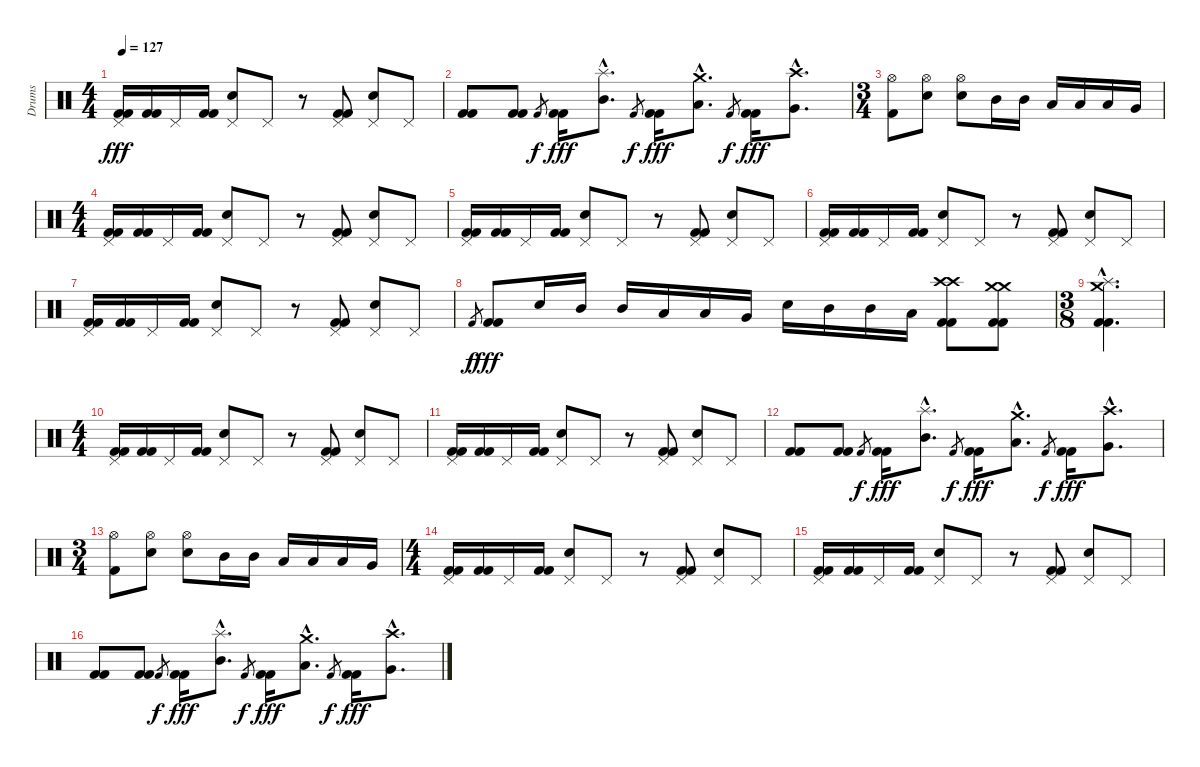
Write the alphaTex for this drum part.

\track ("Drums" "Drums") {instrument percussion}
\staff {score}
\articulation defaults
\ts (4 4)
\tempo 127
\clef neutral
\ks c
("Pedal Hi-Hat (hit)" "Kick (hit) 2" "Kick (hit) 2").16{dy fff} ("Kick (hit) 2" "Kick (hit) 2").16 "Pedal Hi-Hat (hit)".16 ("Kick (hit) 2" "Kick (hit) 2").16 ("Pedal Hi-Hat (hit)" "Electric Snare (hit)").8 "Pedal Hi-Hat (hit)".8 r.8 ("Pedal Hi-Hat (hit)" "Kick (hit) 2" "Kick (hit) 2").8 ("Pedal Hi-Hat (hit)" "Electric Snare (hit)").8 "Pedal Hi-Hat (hit)".8 |
("Kick (hit) 2" "Kick (hit) 2").8 ("Kick (hit) 2" "Kick (hit) 2").8 "Kick (hit) 2".8{gr dy f} ("Kick (hit) 2" "Kick (hit) 2").16{dy fff} ("Splash (hit)"{hac} "Mid Tom (hit)"{hac}).8{d} "Kick (hit) 2".8{gr dy f} ("Kick (hit) 2" "Kick (hit) 2").16{dy fff} ("Crash medium (hit)"{hac} "Low Tom (hit)"{hac}).8{d} "Kick (hit) 2".8{gr dy f} ("Kick (hit) 2" "Kick (hit) 2").16{dy fff} ("Crash high (hit)"{hac} "Very Low Tom (hit)"{hac}).8{d} |
\ts (3 4)
("Hi-Hat (open)" "Kick (hit) 2").8 ("Hi-Hat (open)" "Electric Snare (hit)").8 ("Hi-Hat (open)" "Electric Snare (hit)").8 "Mid Tom (hit)".16 "Mid Tom (hit)".16 "Low Tom (hit)".16 "Low Tom (hit)".16 "Low Tom (hit)".16 "Very Low Tom (hit)".16 |
\ts (4 4)
("Pedal Hi-Hat (hit)" "Kick (hit) 2" "Kick (hit) 2").16 ("Kick (hit) 2" "Kick (hit) 2").16 "Pedal Hi-Hat (hit)".16 ("Kick (hit) 2" "Kick (hit) 2").16 ("Pedal Hi-Hat (hit)" "Electric Snare (hit)").8 "Pedal Hi-Hat (hit)".8 r.8 ("Pedal Hi-Hat (hit)" "Kick (hit) 2" "Kick (hit) 2").8 ("Pedal Hi-Hat (hit)" "Electric Snare (hit)").8 "Pedal Hi-Hat (hit)".8 |
("Pedal Hi-Hat (hit)" "Kick (hit) 2" "Kick (hit) 2").16 ("Kick (hit) 2" "Kick (hit) 2").16 "Pedal Hi-Hat (hit)".16 ("Kick (hit) 2" "Kick (hit) 2").16 ("Pedal Hi-Hat (hit)" "Electric Snare (hit)").8 "Pedal Hi-Hat (hit)".8 r.8 ("Pedal Hi-Hat (hit)" "Kick (hit) 2" "Kick (hit) 2").8 ("Pedal Hi-Hat (hit)" "Electric Snare (hit)").8 "Pedal Hi-Hat (hit)".8 |
("Pedal Hi-Hat (hit)" "Kick (hit) 2" "Kick (hit) 2").16 ("Kick (hit) 2" "Kick (hit) 2").16 "Pedal Hi-Hat (hit)".16 ("Kick (hit) 2" "Kick (hit) 2").16 ("Pedal Hi-Hat (hit)" "Electric Snare (hit)").8 "Pedal Hi-Hat (hit)".8 r.8 ("Pedal Hi-Hat (hit)" "Kick (hit) 2" "Kick (hit) 2").8 ("Pedal Hi-Hat (hit)" "Electric Snare (hit)").8 "Pedal Hi-Hat (hit)".8 |
("Pedal Hi-Hat (hit)" "Kick (hit) 2" "Kick (hit) 2").16 ("Kick (hit) 2" "Kick (hit) 2").16 "Pedal Hi-Hat (hit)".16 ("Kick (hit) 2" "Kick (hit) 2").16 ("Pedal Hi-Hat (hit)" "Electric Snare (hit)").8 "Pedal Hi-Hat (hit)".8 r.8 ("Pedal Hi-Hat (hit)" "Kick (hit) 2" "Kick (hit) 2").8 ("Pedal Hi-Hat (hit)" "Electric Snare (hit)").8 "Pedal Hi-Hat (hit)".8 |
"Kick (hit) 2".8{gr dy f} ("Kick (hit) 2" "Kick (hit) 2").8{dy fff} "Electric Snare (hit)".16 "Mid Tom (hit)".16 "Mid Tom (hit)".16 "Low Tom (hit)".16 "Low Tom (hit)".16 "Very Low Tom (hit)".16 "Electric Snare (hit)".16 "Mid Tom (hit)".16 "Mid Tom (hit)".16 "Low Tom (hit)".16 ("Crash high (hit)" "Crash high (hit)" "Kick (hit) 2" "Kick (hit) 2").8 ("Crash medium (hit)" "Crash medium (hit)" "Kick (hit) 2" "Kick (hit) 2").8 |
\ts (3 8)
("Splash (hit)"{hac} "Crash medium (hit)"{hac} "Kick (hit) 2"{hac} "Kick (hit) 2"{hac}).4{d} |
\ts (4 4)
("Pedal Hi-Hat (hit)" "Kick (hit) 2" "Kick (hit) 2").16 ("Kick (hit) 2" "Kick (hit) 2").16 "Pedal Hi-Hat (hit)".16 ("Kick (hit) 2" "Kick (hit) 2").16 ("Pedal Hi-Hat (hit)" "Electric Snare (hit)").8 "Pedal Hi-Hat (hit)".8 r.8 ("Pedal Hi-Hat (hit)" "Kick (hit) 2" "Kick (hit) 2").8 ("Pedal Hi-Hat (hit)" "Electric Snare (hit)").8 "Pedal Hi-Hat (hit)".8 |
("Pedal Hi-Hat (hit)" "Kick (hit) 2" "Kick (hit) 2").16 ("Kick (hit) 2" "Kick (hit) 2").16 "Pedal Hi-Hat (hit)".16 ("Kick (hit) 2" "Kick (hit) 2").16 ("Pedal Hi-Hat (hit)" "Electric Snare (hit)").8 "Pedal Hi-Hat (hit)".8 r.8 ("Pedal Hi-Hat (hit)" "Kick (hit) 2" "Kick (hit) 2").8 ("Pedal Hi-Hat (hit)" "Electric Snare (hit)").8 "Pedal Hi-Hat (hit)".8 |
("Kick (hit) 2" "Kick (hit) 2").8 ("Kick (hit) 2" "Kick (hit) 2").8 "Kick (hit) 2".8{gr dy f} ("Kick (hit) 2" "Kick (hit) 2").16{dy fff} ("Splash (hit)"{hac} "Mid Tom (hit)"{hac}).8{d} "Kick (hit) 2".8{gr dy f} ("Kick (hit) 2" "Kick (hit) 2").16{dy fff} ("Crash medium (hit)"{hac} "Low Tom (hit)"{hac}).8{d} "Kick (hit) 2".8{gr dy f} ("Kick (hit) 2" "Kick (hit) 2").16{dy fff} ("Crash high (hit)"{hac} "Very Low Tom (hit)"{hac}).8{d} |
\ts (3 4)
("Hi-Hat (open)" "Kick (hit) 2").8 ("Hi-Hat (open)" "Electric Snare (hit)").8 ("Hi-Hat (open)" "Electric Snare (hit)").8 "Mid Tom (hit)".16 "Mid Tom (hit)".16 "Low Tom (hit)".16 "Low Tom (hit)".16 "Low Tom (hit)".16 "Very Low Tom (hit)".16 |
\ts (4 4)
("Pedal Hi-Hat (hit)" "Kick (hit) 2" "Kick (hit) 2").16 ("Kick (hit) 2" "Kick (hit) 2").16 "Pedal Hi-Hat (hit)".16 ("Kick (hit) 2" "Kick (hit) 2").16 ("Pedal Hi-Hat (hit)" "Electric Snare (hit)").8 "Pedal Hi-Hat (hit)".8 r.8 ("Pedal Hi-Hat (hit)" "Kick (hit) 2" "Kick (hit) 2").8 ("Pedal Hi-Hat (hit)" "Electric Snare (hit)").8 "Pedal Hi-Hat (hit)".8 |
("Pedal Hi-Hat (hit)" "Kick (hit) 2" "Kick (hit) 2").16 ("Kick (hit) 2" "Kick (hit) 2").16 "Pedal Hi-Hat (hit)".16 ("Kick (hit) 2" "Kick (hit) 2").16 ("Pedal Hi-Hat (hit)" "Electric Snare (hit)").8 "Pedal Hi-Hat (hit)".8 r.8 ("Pedal Hi-Hat (hit)" "Kick (hit) 2" "Kick (hit) 2").8 ("Pedal Hi-Hat (hit)" "Electric Snare (hit)").8 "Pedal Hi-Hat (hit)".8 |
("Kick (hit) 2" "Kick (hit) 2").8 ("Kick (hit) 2" "Kick (hit) 2").8 "Kick (hit) 2".8{gr dy f} ("Kick (hit) 2" "Kick (hit) 2").16{dy fff} ("Splash (hit)"{hac} "Mid Tom (hit)"{hac}).8{d} "Kick (hit) 2".8{gr dy f} ("Kick (hit) 2" "Kick (hit) 2").16{dy fff} ("Crash medium (hit)"{hac} "Low Tom (hit)"{hac}).8{d} "Kick (hit) 2".8{gr dy f} ("Kick (hit) 2" "Kick (hit) 2").16{dy fff} ("Crash high (hit)"{hac} "Very Low Tom (hit)"{hac}).8{d}
